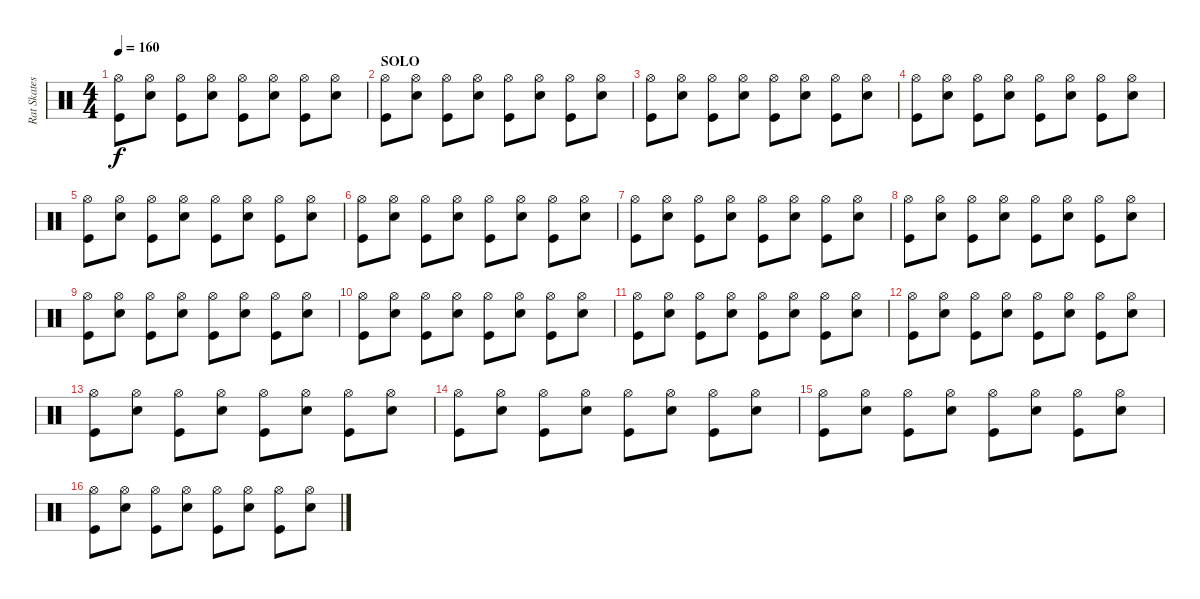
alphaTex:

\track ("Rat Skates" "Rat Skates") {instrument percussion}
\staff {score}
\articulation defaults
\ts (4 4)
\tempo 160
\clef neutral
\ks c
("Hi-Hat (open)" "Kick (hit)").8{dy f} ("Hi-Hat (open)" "Snare (hit) 2").8 ("Hi-Hat (open)" "Kick (hit)").8 ("Hi-Hat (open)" "Snare (hit) 2").8 ("Hi-Hat (open)" "Kick (hit)").8 ("Hi-Hat (open)" "Snare (hit) 2").8 ("Hi-Hat (open)" "Kick (hit)").8 ("Hi-Hat (open)" "Snare (hit) 2").8 |
\section ("" "SOLO")
("Hi-Hat (open)" "Kick (hit)").8 ("Hi-Hat (open)" "Snare (hit) 2").8 ("Hi-Hat (open)" "Kick (hit)").8 ("Hi-Hat (open)" "Snare (hit) 2").8 ("Hi-Hat (open)" "Kick (hit)").8 ("Hi-Hat (open)" "Snare (hit) 2").8 ("Hi-Hat (open)" "Kick (hit)").8 ("Hi-Hat (open)" "Snare (hit) 2").8 |
("Hi-Hat (open)" "Kick (hit)").8 ("Hi-Hat (open)" "Snare (hit) 2").8 ("Hi-Hat (open)" "Kick (hit)").8 ("Hi-Hat (open)" "Snare (hit) 2").8 ("Hi-Hat (open)" "Kick (hit)").8 ("Hi-Hat (open)" "Snare (hit) 2").8 ("Hi-Hat (open)" "Kick (hit)").8 ("Hi-Hat (open)" "Snare (hit) 2").8 |
("Hi-Hat (open)" "Kick (hit)").8 ("Hi-Hat (open)" "Snare (hit) 2").8 ("Hi-Hat (open)" "Kick (hit)").8 ("Hi-Hat (open)" "Snare (hit) 2").8 ("Hi-Hat (open)" "Kick (hit)").8 ("Hi-Hat (open)" "Snare (hit) 2").8 ("Hi-Hat (open)" "Kick (hit)").8 ("Hi-Hat (open)" "Snare (hit) 2").8 |
("Hi-Hat (open)" "Kick (hit)").8 ("Hi-Hat (open)" "Snare (hit) 2").8 ("Hi-Hat (open)" "Kick (hit)").8 ("Hi-Hat (open)" "Snare (hit) 2").8 ("Hi-Hat (open)" "Kick (hit)").8 ("Hi-Hat (open)" "Snare (hit) 2").8 ("Hi-Hat (open)" "Kick (hit)").8 ("Hi-Hat (open)" "Snare (hit) 2").8 |
("Hi-Hat (open)" "Kick (hit)").8 ("Hi-Hat (open)" "Snare (hit) 2").8 ("Hi-Hat (open)" "Kick (hit)").8 ("Hi-Hat (open)" "Snare (hit) 2").8 ("Hi-Hat (open)" "Kick (hit)").8 ("Hi-Hat (open)" "Snare (hit) 2").8 ("Hi-Hat (open)" "Kick (hit)").8 ("Hi-Hat (open)" "Snare (hit) 2").8 |
("Hi-Hat (open)" "Kick (hit)").8 ("Hi-Hat (open)" "Snare (hit) 2").8 ("Hi-Hat (open)" "Kick (hit)").8 ("Hi-Hat (open)" "Snare (hit) 2").8 ("Hi-Hat (open)" "Kick (hit)").8 ("Hi-Hat (open)" "Snare (hit) 2").8 ("Hi-Hat (open)" "Kick (hit)").8 ("Hi-Hat (open)" "Snare (hit) 2").8 |
("Hi-Hat (open)" "Kick (hit)").8 ("Hi-Hat (open)" "Snare (hit) 2").8 ("Hi-Hat (open)" "Kick (hit)").8 ("Hi-Hat (open)" "Snare (hit) 2").8 ("Hi-Hat (open)" "Kick (hit)").8 ("Hi-Hat (open)" "Snare (hit) 2").8 ("Hi-Hat (open)" "Kick (hit)").8 ("Hi-Hat (open)" "Snare (hit) 2").8 |
("Hi-Hat (open)" "Kick (hit)").8 ("Hi-Hat (open)" "Snare (hit) 2").8 ("Hi-Hat (open)" "Kick (hit)").8 ("Hi-Hat (open)" "Snare (hit) 2").8 ("Hi-Hat (open)" "Kick (hit)").8 ("Hi-Hat (open)" "Snare (hit) 2").8 ("Hi-Hat (open)" "Kick (hit)").8 ("Hi-Hat (open)" "Snare (hit) 2").8 |
("Hi-Hat (open)" "Kick (hit)").8 ("Hi-Hat (open)" "Snare (hit) 2").8 ("Hi-Hat (open)" "Kick (hit)").8 ("Hi-Hat (open)" "Snare (hit) 2").8 ("Hi-Hat (open)" "Kick (hit)").8 ("Hi-Hat (open)" "Snare (hit) 2").8 ("Hi-Hat (open)" "Kick (hit)").8 ("Hi-Hat (open)" "Snare (hit) 2").8 |
("Hi-Hat (open)" "Kick (hit)").8 ("Hi-Hat (open)" "Snare (hit) 2").8 ("Hi-Hat (open)" "Kick (hit)").8 ("Hi-Hat (open)" "Snare (hit) 2").8 ("Hi-Hat (open)" "Kick (hit)").8 ("Hi-Hat (open)" "Snare (hit) 2").8 ("Hi-Hat (open)" "Kick (hit)").8 ("Hi-Hat (open)" "Snare (hit) 2").8 |
("Hi-Hat (open)" "Kick (hit)").8 ("Hi-Hat (open)" "Snare (hit) 2").8 ("Hi-Hat (open)" "Kick (hit)").8 ("Hi-Hat (open)" "Snare (hit) 2").8 ("Hi-Hat (open)" "Kick (hit)").8 ("Hi-Hat (open)" "Snare (hit) 2").8 ("Hi-Hat (open)" "Kick (hit)").8 ("Hi-Hat (open)" "Snare (hit) 2").8 |
("Hi-Hat (open)" "Kick (hit)").8 ("Hi-Hat (open)" "Snare (hit) 2").8 ("Hi-Hat (open)" "Kick (hit)").8 ("Hi-Hat (open)" "Snare (hit) 2").8 ("Hi-Hat (open)" "Kick (hit)").8 ("Hi-Hat (open)" "Snare (hit) 2").8 ("Hi-Hat (open)" "Kick (hit)").8 ("Hi-Hat (open)" "Snare (hit) 2").8 |
("Hi-Hat (open)" "Kick (hit)").8 ("Hi-Hat (open)" "Snare (hit) 2").8 ("Hi-Hat (open)" "Kick (hit)").8 ("Hi-Hat (open)" "Snare (hit) 2").8 ("Hi-Hat (open)" "Kick (hit)").8 ("Hi-Hat (open)" "Snare (hit) 2").8 ("Hi-Hat (open)" "Kick (hit)").8 ("Hi-Hat (open)" "Snare (hit) 2").8 |
("Hi-Hat (open)" "Kick (hit)").8 ("Hi-Hat (open)" "Snare (hit) 2").8 ("Hi-Hat (open)" "Kick (hit)").8 ("Hi-Hat (open)" "Snare (hit) 2").8 ("Hi-Hat (open)" "Kick (hit)").8 ("Hi-Hat (open)" "Snare (hit) 2").8 ("Hi-Hat (open)" "Kick (hit)").8 ("Hi-Hat (open)" "Snare (hit) 2").8 |
("Hi-Hat (open)" "Kick (hit)").8 ("Hi-Hat (open)" "Snare (hit) 2").8 ("Hi-Hat (open)" "Kick (hit)").8 ("Hi-Hat (open)" "Snare (hit) 2").8 ("Hi-Hat (open)" "Kick (hit)").8 ("Hi-Hat (open)" "Snare (hit) 2").8 ("Hi-Hat (open)" "Kick (hit)").8 ("Hi-Hat (open)" "Snare (hit) 2").8
